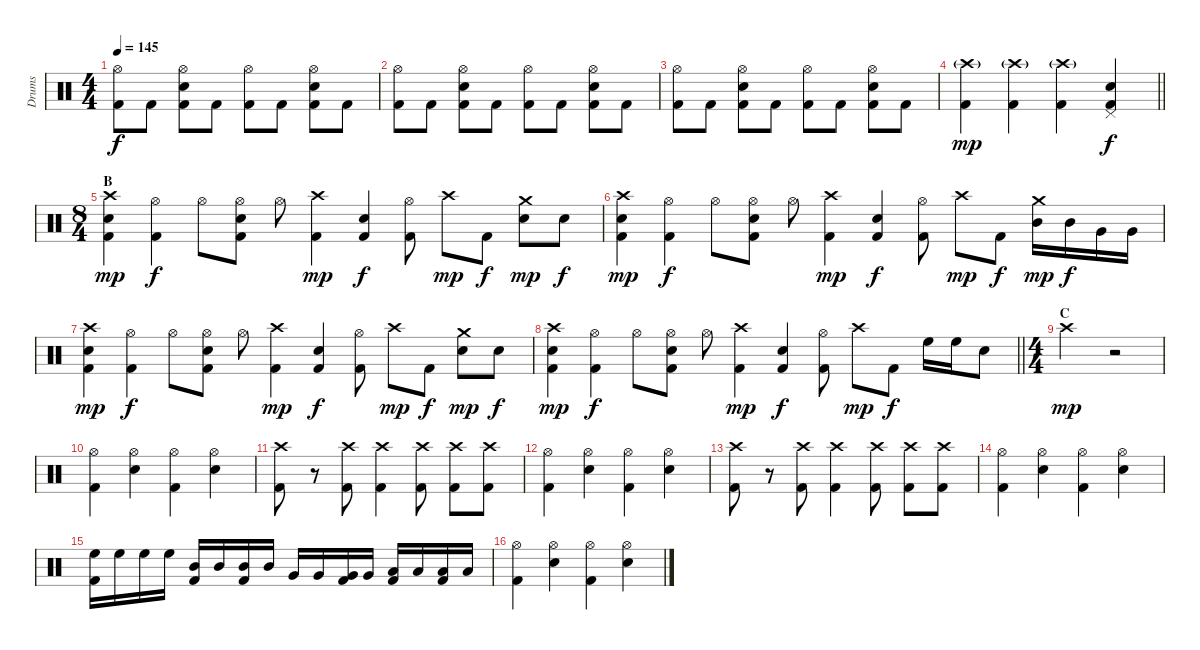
\track ("Drums" "Drums") {instrument percussion}
\staff {score}
\articulation defaults
\ts (4 4)
\tempo 145
\clef neutral
\ks c
("Hi-Hat (open)" "Kick (hit) 2").8{dy f} "Kick (hit) 2".8 ("Snare (hit) 2" "Hi-Hat (open)" "Kick (hit) 2").8 "Kick (hit) 2".8 ("Hi-Hat (open)" "Kick (hit) 2").8 "Kick (hit) 2".8 ("Snare (hit) 2" "Hi-Hat (open)" "Kick (hit) 2").8 "Kick (hit) 2".8 |
("Hi-Hat (open)" "Kick (hit) 2").8 "Kick (hit) 2".8 ("Snare (hit) 2" "Hi-Hat (open)" "Kick (hit) 2").8 "Kick (hit) 2".8 ("Hi-Hat (open)" "Kick (hit) 2").8 "Kick (hit) 2".8 ("Snare (hit) 2" "Hi-Hat (open)" "Kick (hit) 2").8 "Kick (hit) 2".8 |
("Hi-Hat (open)" "Kick (hit) 2").8 "Kick (hit) 2".8 ("Snare (hit) 2" "Hi-Hat (open)" "Kick (hit) 2").8 "Kick (hit) 2".8 ("Hi-Hat (open)" "Kick (hit) 2").8 "Kick (hit) 2".8 ("Snare (hit) 2" "Hi-Hat (open)" "Kick (hit) 2").8 "Kick (hit) 2".8 |
\barLineRight lightlight
("Crash high (hit)"{g} "Kick (hit) 2").4{dy mp} ("Crash high (hit)"{g} "Kick (hit) 2").4 ("Crash high (hit)"{g} "Kick (hit) 2").4 ("Snare (hit) 2" "Pedal Hi-Hat (hit)" "Kick (hit) 2").4{dy f} |
\ts (8 4)
\section ("" "B")
("Snare (hit) 2" "Crash high (hit)" "Kick (hit) 2").4{dy mp} ("Hi-Hat (open)" "Kick (hit) 2").4{dy f} "Hi-Hat (open)".8 ("Snare (hit) 2" "Hi-Hat (open)" "Kick (hit) 2").8 "Hi-Hat (open)".8 ("Crash high (hit)" "Kick (hit) 2").4{dy mp} ("Snare (hit) 2" "Kick (hit) 2").4{dy f} ("Hi-Hat (open)" "Kick (hit) 2").8 "Crash high (hit)".8{dy mp} "Kick (hit) 2".8{dy f} ("Snare (hit) 2" "Crash medium (hit)").8{dy mp} "Snare (hit) 2".8{dy f} |
("Snare (hit) 2" "Crash high (hit)" "Kick (hit) 2").4{dy mp} ("Hi-Hat (open)" "Kick (hit) 2").4{dy f} "Hi-Hat (open)".8 ("Snare (hit) 2" "Hi-Hat (open)" "Kick (hit) 2").8 "Hi-Hat (open)".8 ("Crash high (hit)" "Kick (hit) 2").4{dy mp} ("Snare (hit) 2" "Kick (hit) 2").4{dy f} ("Hi-Hat (open)" "Kick (hit) 2").8 "Crash high (hit)".8{dy mp} "Kick (hit) 2".8{dy f} ("Mid Tom (hit)" "Crash medium (hit)").16{dy mp} "Mid Tom (hit)".16{dy f} "Very Low Tom (hit)".16 "Very Low Tom (hit)".16 |
("Snare (hit) 2" "Crash high (hit)" "Kick (hit) 2").4{dy mp} ("Hi-Hat (open)" "Kick (hit) 2").4{dy f} "Hi-Hat (open)".8 ("Snare (hit) 2" "Hi-Hat (open)" "Kick (hit) 2").8 "Hi-Hat (open)".8 ("Crash high (hit)" "Kick (hit) 2").4{dy mp} ("Snare (hit) 2" "Kick (hit) 2").4{dy f} ("Hi-Hat (open)" "Kick (hit) 2").8 "Crash high (hit)".8{dy mp} "Kick (hit) 2".8{dy f} ("Snare (hit) 2" "Crash medium (hit)").8{dy mp} "Snare (hit) 2".8{dy f} |
\barLineRight lightlight
("Snare (hit) 2" "Crash high (hit)" "Kick (hit) 2").4{dy mp} ("Hi-Hat (open)" "Kick (hit) 2").4{dy f} "Hi-Hat (open)".8 ("Snare (hit) 2" "Hi-Hat (open)" "Kick (hit) 2").8 "Hi-Hat (open)".8 ("Crash high (hit)" "Kick (hit) 2").4{dy mp} ("Snare (hit) 2" "Kick (hit) 2").4{dy f} ("Hi-Hat (open)" "Kick (hit) 2").8 "Crash high (hit)".8{dy mp} "Kick (hit) 2".8{dy f} "High Floor Tom (hit)".16 "High Floor Tom (hit)".16 "Snare (hit) 2".8 |
\ts (4 4)
\section ("" "C")
"Crash high (hit)".2{dy mp} r.2 |
("Hi-Hat (open)" "Kick (hit) 2").4 ("Snare (hit) 2" "Hi-Hat (open)").4 ("Hi-Hat (open)" "Kick (hit) 2").4 ("Snare (hit) 2" "Hi-Hat (open)").4 |
("Crash high (hit)" "Kick (hit) 2").8 r.8 ("Crash high (hit)" "Kick (hit) 2").8 ("Crash high (hit)" "Kick (hit) 2").4 ("Crash high (hit)" "Kick (hit) 2").8 ("Crash high (hit)" "Kick (hit) 2").8 ("Crash high (hit)" "Kick (hit) 2").8 |
("Hi-Hat (open)" "Kick (hit) 2").4 ("Snare (hit) 2" "Hi-Hat (open)").4 ("Hi-Hat (open)" "Kick (hit) 2").4 ("Snare (hit) 2" "Hi-Hat (open)").4 |
("Crash high (hit)" "Kick (hit) 2").8 r.8 ("Crash high (hit)" "Kick (hit) 2").8 ("Crash high (hit)" "Kick (hit) 2").4 ("Crash high (hit)" "Kick (hit) 2").8 ("Crash high (hit)" "Kick (hit) 2").8 ("Crash high (hit)" "Kick (hit) 2").8 |
("Hi-Hat (open)" "Kick (hit) 2").4 ("Snare (hit) 2" "Hi-Hat (open)").4 ("Hi-Hat (open)" "Kick (hit) 2").4 ("Snare (hit) 2" "Hi-Hat (open)").4 |
("High Floor Tom (hit)" "Kick (hit) 2").16 "High Floor Tom (hit)".16 "High Floor Tom (hit)".16 "High Floor Tom (hit)".16 ("Mid Tom (hit)" "Kick (hit) 2").16 "Mid Tom (hit)".16 ("Mid Tom (hit)" "Kick (hit) 2").16 "Mid Tom (hit)".16 "Very Low Tom (hit)".16 "Very Low Tom (hit)".16 ("Very Low Tom (hit)" "Kick (hit) 2").16 "Very Low Tom (hit)".16 ("Low Floor Tom (hit)" "Kick (hit) 2").16 "Low Floor Tom (hit)".16 ("Low Floor Tom (hit)" "Kick (hit) 2").16 "Low Floor Tom (hit)".16 |
("Hi-Hat (open)" "Kick (hit) 2").4 ("Snare (hit) 2" "Hi-Hat (open)").4 ("Hi-Hat (open)" "Kick (hit) 2").4 ("Snare (hit) 2" "Hi-Hat (open)").4
